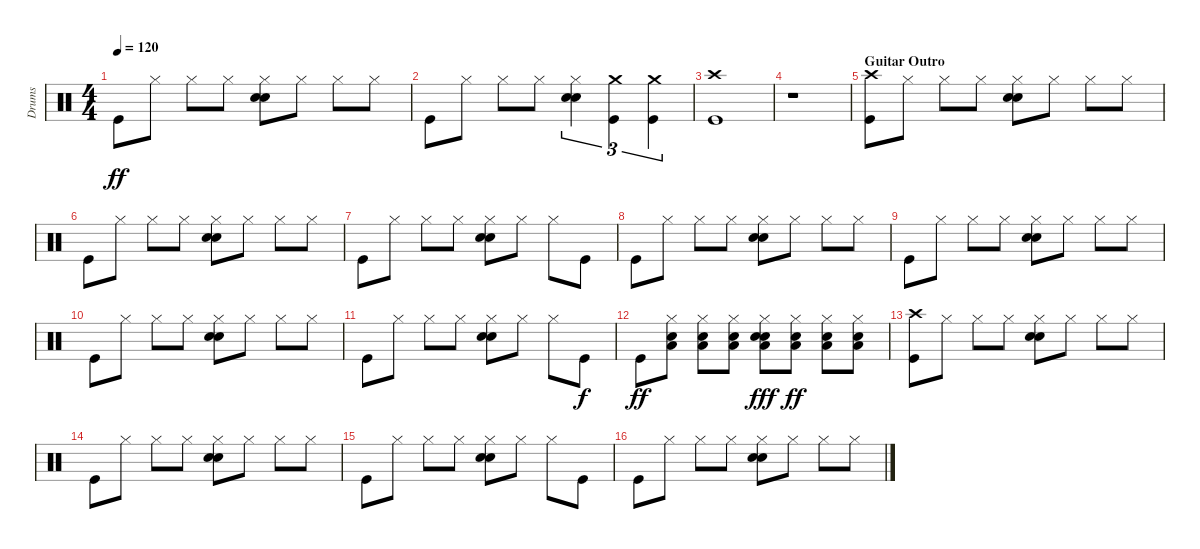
\track ("Drums" "Drums") {instrument percussion}
\staff {score}
\articulation defaults
\ts (4 4)
\tempo 120
\clef neutral
\ks c "Kick (hit)".8{dy ff} "Hi-Hat (closed)".8 "Hi-Hat (closed)".8 "Hi-Hat (closed)".8
("Electric Snare (hit)" "Hi-Hat (closed)" "Snare (hit) 2").8 "Hi-Hat (closed)".8 "Hi-Hat (closed)".8 "Hi-Hat (closed)".8 |
"Kick (hit)".8 "Hi-Hat (closed)".8 "Hi-Hat (closed)".8 "Hi-Hat (closed)".8 ("Electric Snare (hit)" "Hi-Hat (closed)" "Snare (hit) 2").4{tu (3 2)} ("Crash medium (hit)" "Kick (hit)").4{tu (3 2)} ("Crash medium (hit)" "Kick (hit)").4{tu (3 2)} |
("Crash high (hit)" "Kick (hit)").1 |
r.1 |
\section ("" "Guitar Outro")
("Crash high (hit)" "Kick (hit)").8 "Hi-Hat (closed)".8 "Hi-Hat (closed)".8 "Hi-Hat (closed)".8 ("Electric Snare (hit)" "Hi-Hat (closed)" "Snare (hit) 2").8 "Hi-Hat (closed)".8 "Hi-Hat (closed)".8 "Hi-Hat (closed)".8 |
"Kick (hit)".8 "Hi-Hat (closed)".8 "Hi-Hat (closed)".8 "Hi-Hat (closed)".8 ("Electric Snare (hit)" "Hi-Hat (closed)" "Snare (hit) 2").8 "Hi-Hat (closed)".8 "Hi-Hat (closed)".8 "Hi-Hat (closed)".8 |
"Kick (hit)".8 "Hi-Hat (closed)".8 "Hi-Hat (closed)".8 "Hi-Hat (closed)".8 ("Electric Snare (hit)" "Hi-Hat (closed)" "Snare (hit) 2").8 "Hi-Hat (closed)".8 "Hi-Hat (closed)".8 "Kick (hit)".8 |
"Kick (hit)".8 "Hi-Hat (closed)".8 "Hi-Hat (closed)".8 "Hi-Hat (closed)".8 ("Electric Snare (hit)" "Hi-Hat (closed)" "Snare (hit) 2").8 "Hi-Hat (closed)".8 "Hi-Hat (closed)".8 "Hi-Hat (closed)".8 |
"Kick (hit)".8 "Hi-Hat (closed)".8 "Hi-Hat (closed)".8 "Hi-Hat (closed)".8 ("Electric Snare (hit)" "Hi-Hat (closed)" "Snare (hit) 2").8 "Hi-Hat (closed)".8 "Hi-Hat (closed)".8 "Hi-Hat (closed)".8 |
"Kick (hit)".8 "Hi-Hat (closed)".8 "Hi-Hat (closed)".8 "Hi-Hat (closed)".8 ("Electric Snare (hit)" "Hi-Hat (closed)" "Snare (hit) 2").8 "Hi-Hat (closed)".8 "Hi-Hat (closed)".8 "Hi-Hat (closed)".8 |
"Kick (hit)".8 "Hi-Hat (closed)".8 "Hi-Hat (closed)".8 "Hi-Hat (closed)".8 ("Electric Snare (hit)" "Hi-Hat (closed)" "Snare (hit) 2").8 "Hi-Hat (closed)".8 "Hi-Hat (closed)".8 "Kick (hit)".8{dy f} |
"Kick (hit)".8{dy ff} ("Low Tom (hit)" "Electric Snare (hit)" "Hi-Hat (closed)").8 ("Low Tom (hit)" "Electric Snare (hit)" "Hi-Hat (closed)").8 ("Low Tom (hit)" "Electric Snare (hit)" "Hi-Hat (closed)").8 ("Low Tom (hit)" "Electric Snare (hit)" "Electric Snare (hit)" "Hi-Hat (closed)").8{dy fff} ("Low Tom (hit)" "Electric Snare (hit)" "Hi-Hat (closed)").8{dy ff} ("Low Tom (hit)" "Electric Snare (hit)" "Hi-Hat (closed)").8 ("Low Floor Tom (hit)" "Electric Snare (hit)" "Hi-Hat (closed)").8 |
("Crash high (hit)" "Kick (hit)").8 "Hi-Hat (closed)".8 "Hi-Hat (closed)".8 "Hi-Hat (closed)".8 ("Electric Snare (hit)" "Hi-Hat (closed)" "Snare (hit) 2").8 "Hi-Hat (closed)".8 "Hi-Hat (closed)".8 "Hi-Hat (closed)".8 |
"Kick (hit)".8 "Hi-Hat (closed)".8 "Hi-Hat (closed)".8 "Hi-Hat (closed)".8 ("Electric Snare (hit)" "Hi-Hat (closed)" "Snare (hit) 2").8 "Hi-Hat (closed)".8 "Hi-Hat (closed)".8 "Hi-Hat (closed)".8 |
"Kick (hit)".8 "Hi-Hat (closed)".8 "Hi-Hat (closed)".8 "Hi-Hat (closed)".8 ("Electric Snare (hit)" "Hi-Hat (closed)" "Snare (hit) 2").8 "Hi-Hat (closed)".8 "Hi-Hat (closed)".8 "Kick (hit)".8 |
"Kick (hit)".8 "Hi-Hat (closed)".8 "Hi-Hat (closed)".8 "Hi-Hat (closed)".8 ("Electric Snare (hit)" "Hi-Hat (closed)" "Snare (hit) 2").8 "Hi-Hat (closed)".8 "Hi-Hat (closed)".8 "Hi-Hat (closed)".8
